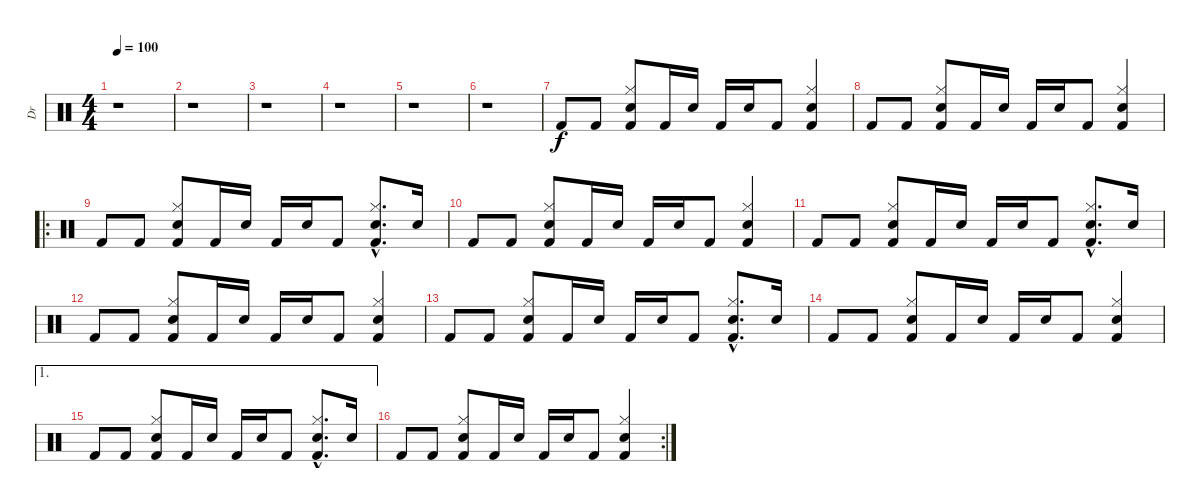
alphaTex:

\track ("Dr" "Dr") {instrument percussion}
\staff {score}
\articulation defaults
\ts (4 4)
\tempo 100
\clef neutral
\ks c
r.1{dy f} |
r.1 |
r.1 |
r.1 |
r.1 |
r.1 |
"Kick (hit) 2".8 "Kick (hit) 2".8 ("Hi-Hat (closed)" "Electric Snare (hit)" "Kick (hit) 2").8 "Kick (hit) 2".16 "Electric Snare (hit)".16 "Kick (hit) 2".16 "Electric Snare (hit)".16 "Kick (hit) 2".8 ("Hi-Hat (closed)" "Electric Snare (hit)" "Kick (hit) 2").4 |
"Kick (hit) 2".8 "Kick (hit) 2".8 ("Hi-Hat (closed)" "Electric Snare (hit)" "Kick (hit) 2").8 "Kick (hit) 2".16 "Electric Snare (hit)".16 "Kick (hit) 2".16 "Electric Snare (hit)".16 "Kick (hit) 2".8 ("Hi-Hat (closed)" "Electric Snare (hit)" "Kick (hit) 2").4 |
\ro "Kick (hit) 2".8 "Kick (hit) 2".8
("Hi-Hat (closed)" "Electric Snare (hit)" "Kick (hit) 2").8 "Kick (hit) 2".16 "Electric Snare (hit)".16 "Kick (hit) 2".16 "Electric Snare (hit)".16 "Kick (hit) 2".8 ("Hi-Hat (closed)"{hac} "Electric Snare (hit)"{hac} "Kick (hit) 2"{hac}).8{d} "Electric Snare (hit)".16 |
"Kick (hit) 2".8 "Kick (hit) 2".8 ("Hi-Hat (closed)" "Electric Snare (hit)" "Kick (hit) 2").8 "Kick (hit) 2".16 "Electric Snare (hit)".16 "Kick (hit) 2".16 "Electric Snare (hit)".16 "Kick (hit) 2".8 ("Hi-Hat (closed)" "Electric Snare (hit)" "Kick (hit) 2").4 |
"Kick (hit) 2".8 "Kick (hit) 2".8 ("Hi-Hat (closed)" "Electric Snare (hit)" "Kick (hit) 2").8 "Kick (hit) 2".16 "Electric Snare (hit)".16 "Kick (hit) 2".16 "Electric Snare (hit)".16 "Kick (hit) 2".8 ("Hi-Hat (closed)"{hac} "Electric Snare (hit)"{hac} "Kick (hit) 2"{hac}).8{d} "Electric Snare (hit)".16 |
"Kick (hit) 2".8 "Kick (hit) 2".8 ("Hi-Hat (closed)" "Electric Snare (hit)" "Kick (hit) 2").8 "Kick (hit) 2".16 "Electric Snare (hit)".16 "Kick (hit) 2".16 "Electric Snare (hit)".16 "Kick (hit) 2".8 ("Hi-Hat (closed)" "Electric Snare (hit)" "Kick (hit) 2").4 |
"Kick (hit) 2".8 "Kick (hit) 2".8 ("Hi-Hat (closed)" "Electric Snare (hit)" "Kick (hit) 2").8 "Kick (hit) 2".16 "Electric Snare (hit)".16 "Kick (hit) 2".16 "Electric Snare (hit)".16 "Kick (hit) 2".8 ("Hi-Hat (closed)"{hac} "Electric Snare (hit)"{hac} "Kick (hit) 2"{hac}).8{d} "Electric Snare (hit)".16 |
"Kick (hit) 2".8 "Kick (hit) 2".8 ("Hi-Hat (closed)" "Electric Snare (hit)" "Kick (hit) 2").8 "Kick (hit) 2".16 "Electric Snare (hit)".16 "Kick (hit) 2".16 "Electric Snare (hit)".16 "Kick (hit) 2".8 ("Hi-Hat (closed)" "Electric Snare (hit)" "Kick (hit) 2").4 |
\ae 1 "Kick (hit) 2".8 "Kick (hit) 2".8
("Hi-Hat (closed)" "Electric Snare (hit)" "Kick (hit) 2").8 "Kick (hit) 2".16 "Electric Snare (hit)".16 "Kick (hit) 2".16 "Electric Snare (hit)".16 "Kick (hit) 2".8 ("Hi-Hat (closed)"{hac} "Electric Snare (hit)"{hac} "Kick (hit) 2"{hac}).8{d} "Electric Snare (hit)".16 |
\rc 2 "Kick (hit) 2".8 "Kick (hit) 2".8
("Hi-Hat (closed)" "Electric Snare (hit)" "Kick (hit) 2").8 "Kick (hit) 2".16 "Electric Snare (hit)".16 "Kick (hit) 2".16 "Electric Snare (hit)".16 "Kick (hit) 2".8 ("Hi-Hat (closed)" "Electric Snare (hit)" "Kick (hit) 2").4
